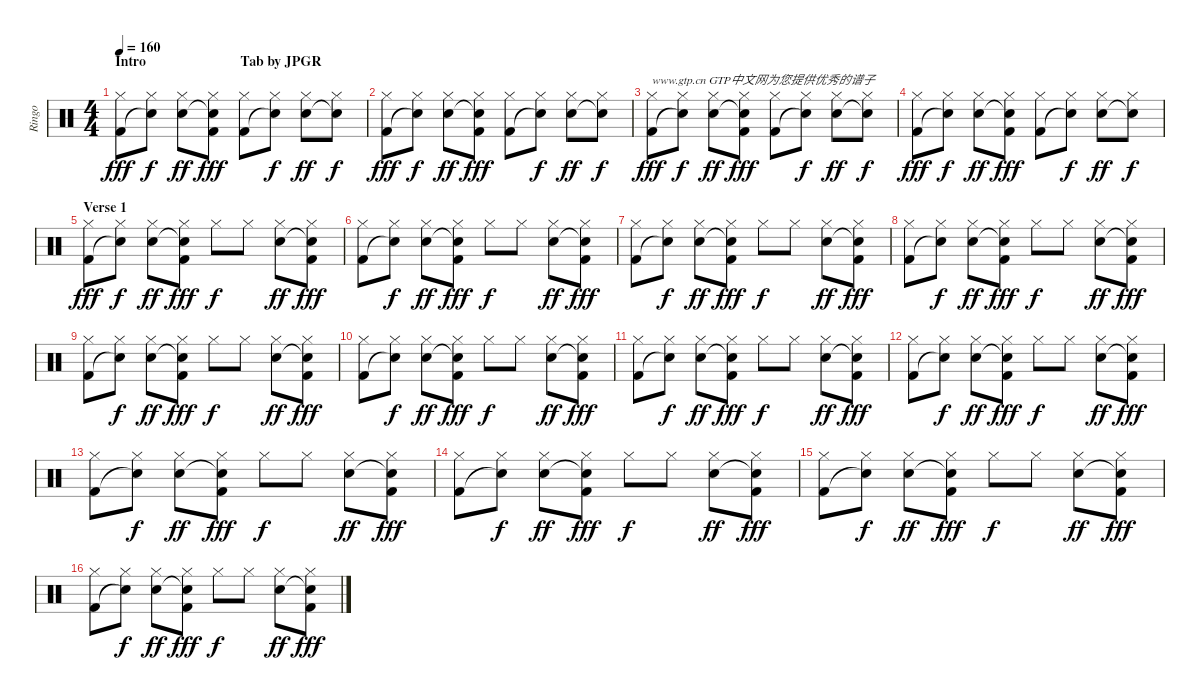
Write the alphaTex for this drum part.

\track ("Ringo" "Ringo") {instrument percussion}
\staff {score}
\articulation defaults
\ts (4 4)
\section ("" "Intro                           Tab by JPGR")
\tempo 160
\clef neutral
\ks c
("Hi-Hat (closed)" "Kick (hit) 2").8{dy fff} ("Hi-Hat (closed)" "Snare (hit)"{t}).8{dy f} ("Hi-Hat (closed)" "Snare (hit) 2").8{dy ff} ("Hi-Hat (closed)" "Snare (hit)"{t} "Kick (hit) 2").8{dy fff} ("Hi-Hat (closed)" "Kick (hit) 2").8 ("Hi-Hat (closed)" "Snare (hit)"{t}).8{dy f} ("Hi-Hat (closed)" "Snare (hit) 2").8{dy ff} ("Hi-Hat (closed)" "Snare (hit)"{t}).8{dy f} |
("Hi-Hat (closed)" "Kick (hit) 2").8{dy fff} ("Hi-Hat (closed)" "Snare (hit)"{t}).8{dy f} ("Hi-Hat (closed)" "Snare (hit) 2").8{dy ff} ("Hi-Hat (closed)" "Snare (hit)"{t} "Kick (hit) 2").8{dy fff} ("Hi-Hat (closed)" "Kick (hit) 2").8 ("Hi-Hat (closed)" "Snare (hit)"{t}).8{dy f} ("Hi-Hat (closed)" "Snare (hit) 2").8{dy ff} ("Hi-Hat (closed)" "Snare (hit)"{t}).8{dy f} |
("Hi-Hat (closed)" "Kick (hit) 2").8{txt "www.gtp.cn GTP中文网为您提供优秀的谱子" dy fff} ("Hi-Hat (closed)" "Snare (hit)"{t}).8{dy f} ("Hi-Hat (closed)" "Snare (hit) 2").8{dy ff} ("Hi-Hat (closed)" "Snare (hit)"{t} "Kick (hit) 2").8{dy fff} ("Hi-Hat (closed)" "Kick (hit) 2").8 ("Hi-Hat (closed)" "Snare (hit)"{t}).8{dy f} ("Hi-Hat (closed)" "Snare (hit) 2").8{dy ff} ("Hi-Hat (closed)" "Snare (hit)"{t}).8{dy f} |
("Hi-Hat (closed)" "Kick (hit) 2").8{dy fff} ("Hi-Hat (closed)" "Snare (hit)"{t}).8{dy f} ("Hi-Hat (closed)" "Snare (hit) 2").8{dy ff} ("Hi-Hat (closed)" "Snare (hit)"{t} "Kick (hit) 2").8{dy fff} ("Hi-Hat (closed)" "Kick (hit) 2").8 ("Hi-Hat (closed)" "Snare (hit)"{t}).8{dy f} ("Hi-Hat (closed)" "Snare (hit) 2").8{dy ff} ("Hi-Hat (closed)" "Snare (hit)"{t}).8{dy f} |
\section ("" "Verse 1")
("Hi-Hat (closed)" "Kick (hit) 2").8{dy fff} ("Hi-Hat (closed)" "Snare (hit)"{t}).8{dy f} ("Hi-Hat (closed)" "Snare (hit) 2").8{dy ff} ("Hi-Hat (closed)" "Snare (hit)"{t} "Kick (hit) 2").8{dy fff} "Hi-Hat (closed)".8{dy f} "Hi-Hat (closed)".8 ("Hi-Hat (closed)" "Snare (hit) 2").8{dy ff} ("Hi-Hat (closed)" "Snare (hit)"{t} "Kick (hit) 2").8{dy fff} |
("Hi-Hat (closed)" "Kick (hit) 2").8 ("Hi-Hat (closed)" "Snare (hit)"{t}).8{dy f} ("Hi-Hat (closed)" "Snare (hit) 2").8{dy ff} ("Hi-Hat (closed)" "Snare (hit)"{t} "Kick (hit) 2").8{dy fff} "Hi-Hat (closed)".8{dy f} "Hi-Hat (closed)".8 ("Hi-Hat (closed)" "Snare (hit) 2").8{dy ff} ("Hi-Hat (closed)" "Snare (hit)"{t} "Kick (hit) 2").8{dy fff} |
("Hi-Hat (closed)" "Kick (hit) 2").8 ("Hi-Hat (closed)" "Snare (hit)"{t}).8{dy f} ("Hi-Hat (closed)" "Snare (hit) 2").8{dy ff} ("Hi-Hat (closed)" "Snare (hit)"{t} "Kick (hit) 2").8{dy fff} "Hi-Hat (closed)".8{dy f} "Hi-Hat (closed)".8 ("Hi-Hat (closed)" "Snare (hit) 2").8{dy ff} ("Hi-Hat (closed)" "Snare (hit)"{t} "Kick (hit) 2").8{dy fff} |
("Hi-Hat (closed)" "Kick (hit) 2").8 ("Hi-Hat (closed)" "Snare (hit)"{t}).8{dy f} ("Hi-Hat (closed)" "Snare (hit) 2").8{dy ff} ("Hi-Hat (closed)" "Snare (hit)"{t} "Kick (hit) 2").8{dy fff} "Hi-Hat (closed)".8{dy f} "Hi-Hat (closed)".8 ("Hi-Hat (closed)" "Snare (hit) 2").8{dy ff} ("Hi-Hat (closed)" "Snare (hit)"{t} "Kick (hit) 2").8{dy fff} |
("Hi-Hat (closed)" "Kick (hit) 2").8 ("Hi-Hat (closed)" "Snare (hit)"{t}).8{dy f} ("Hi-Hat (closed)" "Snare (hit) 2").8{dy ff} ("Hi-Hat (closed)" "Snare (hit)"{t} "Kick (hit) 2").8{dy fff} "Hi-Hat (closed)".8{dy f} "Hi-Hat (closed)".8 ("Hi-Hat (closed)" "Snare (hit) 2").8{dy ff} ("Hi-Hat (closed)" "Snare (hit)"{t} "Kick (hit) 2").8{dy fff} |
("Hi-Hat (closed)" "Kick (hit) 2").8 ("Hi-Hat (closed)" "Snare (hit)"{t}).8{dy f} ("Hi-Hat (closed)" "Snare (hit) 2").8{dy ff} ("Hi-Hat (closed)" "Snare (hit)"{t} "Kick (hit) 2").8{dy fff} "Hi-Hat (closed)".8{dy f} "Hi-Hat (closed)".8 ("Hi-Hat (closed)" "Snare (hit) 2").8{dy ff} ("Hi-Hat (closed)" "Snare (hit)"{t} "Kick (hit) 2").8{dy fff} |
("Hi-Hat (closed)" "Kick (hit) 2").8 ("Hi-Hat (closed)" "Snare (hit)"{t}).8{dy f} ("Hi-Hat (closed)" "Snare (hit) 2").8{dy ff} ("Hi-Hat (closed)" "Snare (hit)"{t} "Kick (hit) 2").8{dy fff} "Hi-Hat (closed)".8{dy f} "Hi-Hat (closed)".8 ("Hi-Hat (closed)" "Snare (hit) 2").8{dy ff} ("Hi-Hat (closed)" "Snare (hit)"{t} "Kick (hit) 2").8{dy fff} |
("Hi-Hat (closed)" "Kick (hit) 2").8 ("Hi-Hat (closed)" "Snare (hit)"{t}).8{dy f} ("Hi-Hat (closed)" "Snare (hit) 2").8{dy ff} ("Hi-Hat (closed)" "Snare (hit)"{t} "Kick (hit) 2").8{dy fff} "Hi-Hat (closed)".8{dy f} "Hi-Hat (closed)".8 ("Hi-Hat (closed)" "Snare (hit) 2").8{dy ff} ("Hi-Hat (closed)" "Snare (hit)"{t} "Kick (hit) 2").8{dy fff} |
("Hi-Hat (closed)" "Kick (hit) 2").8 ("Hi-Hat (closed)" "Snare (hit)"{t}).8{dy f} ("Hi-Hat (closed)" "Snare (hit) 2").8{dy ff} ("Hi-Hat (closed)" "Snare (hit)"{t} "Kick (hit) 2").8{dy fff} "Hi-Hat (closed)".8{dy f} "Hi-Hat (closed)".8 ("Hi-Hat (closed)" "Snare (hit) 2").8{dy ff} ("Hi-Hat (closed)" "Snare (hit)"{t} "Kick (hit) 2").8{dy fff} |
("Hi-Hat (closed)" "Kick (hit) 2").8 ("Hi-Hat (closed)" "Snare (hit)"{t}).8{dy f} ("Hi-Hat (closed)" "Snare (hit) 2").8{dy ff} ("Hi-Hat (closed)" "Snare (hit)"{t} "Kick (hit) 2").8{dy fff} "Hi-Hat (closed)".8{dy f} "Hi-Hat (closed)".8 ("Hi-Hat (closed)" "Snare (hit) 2").8{dy ff} ("Hi-Hat (closed)" "Snare (hit)"{t} "Kick (hit) 2").8{dy fff} |
("Hi-Hat (closed)" "Kick (hit) 2").8 ("Hi-Hat (closed)" "Snare (hit)"{t}).8{dy f} ("Hi-Hat (closed)" "Snare (hit) 2").8{dy ff} ("Hi-Hat (closed)" "Snare (hit)"{t} "Kick (hit) 2").8{dy fff} "Hi-Hat (closed)".8{dy f} "Hi-Hat (closed)".8 ("Hi-Hat (closed)" "Snare (hit) 2").8{dy ff} ("Hi-Hat (closed)" "Snare (hit)"{t} "Kick (hit) 2").8{dy fff} |
("Hi-Hat (closed)" "Kick (hit) 2").8 ("Hi-Hat (closed)" "Snare (hit)"{t}).8{dy f} ("Hi-Hat (closed)" "Snare (hit) 2").8{dy ff} ("Hi-Hat (closed)" "Snare (hit)"{t} "Kick (hit) 2").8{dy fff} "Hi-Hat (closed)".8{dy f} "Hi-Hat (closed)".8 ("Hi-Hat (closed)" "Snare (hit) 2").8{dy ff} ("Hi-Hat (closed)" "Snare (hit)"{t} "Kick (hit) 2").8{dy fff}
